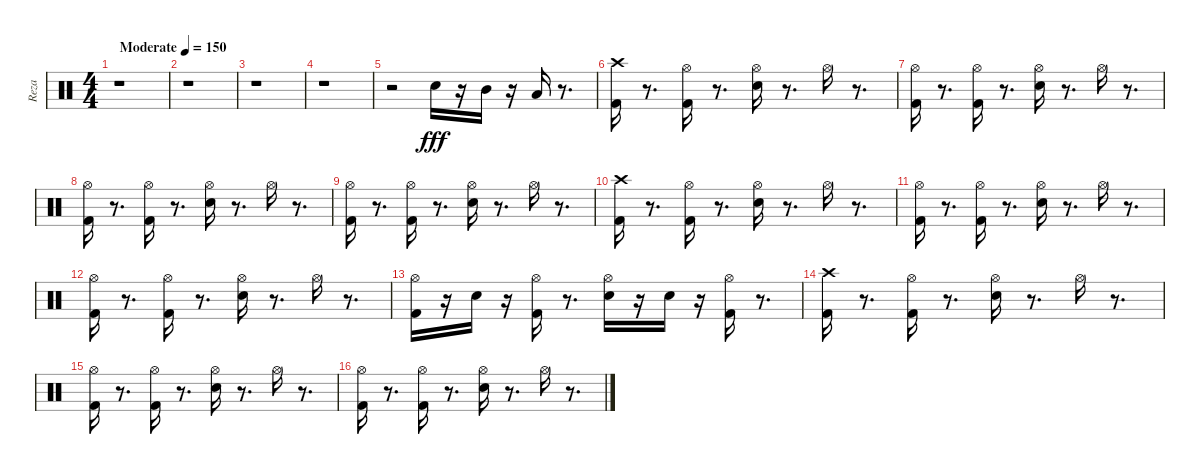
\track ("Reza" "Reza") {instrument percussion}
\staff {score}
\articulation defaults
\ts (4 4)
\tempo (150 "Moderate")
\clef neutral
\ks c
r.1{dy fff} |
r.1 |
r.1 |
r.1 |
r.2 "Snare (hit) 2".16 r.16 "Mid Tom (hit)".16 r.16 "Low Tom (hit)".16 r.8{d} |
("Kick (hit) 2" "Crash high (hit)").16 r.8{d} ("Kick (hit) 2" "Hi-Hat (open)").16 r.8{d} ("Snare (hit) 2" "Hi-Hat (open)").16 r.8{d} "Hi-Hat (open)".16 r.8{d} |
("Hi-Hat (open)" "Kick (hit) 2").16 r.8{d} ("Kick (hit) 2" "Hi-Hat (open)").16 r.8{d} ("Snare (hit) 2" "Hi-Hat (open)").16 r.8{d} "Hi-Hat (open)".16 r.8{d} |
("Hi-Hat (open)" "Kick (hit) 2").16 r.8{d} ("Hi-Hat (open)" "Kick (hit) 2").16 r.8{d} ("Snare (hit) 2" "Hi-Hat (open)").16 r.8{d} "Hi-Hat (open)".16 r.8{d} |
("Hi-Hat (open)" "Kick (hit) 2").16 r.8{d} ("Hi-Hat (open)" "Kick (hit) 2").16 r.8{d} ("Snare (hit) 2" "Hi-Hat (open)").16 r.8{d} "Hi-Hat (open)".16 r.8{d} |
("Crash high (hit)" "Kick (hit) 2").16 r.8{d} ("Hi-Hat (open)" "Kick (hit) 2").16 r.8{d} ("Snare (hit) 2" "Hi-Hat (open)").16 r.8{d} "Hi-Hat (open)".16 r.8{d} |
("Kick (hit) 2" "Hi-Hat (open)").16 r.8{d} ("Kick (hit) 2" "Hi-Hat (open)").16 r.8{d} ("Snare (hit) 2" "Hi-Hat (open)").16 r.8{d} "Hi-Hat (open)".16 r.8{d} |
("Hi-Hat (open)" "Kick (hit) 2").16 r.8{d} ("Hi-Hat (open)" "Kick (hit) 2").16 r.8{d} ("Snare (hit) 2" "Hi-Hat (open)").16 r.8{d} "Hi-Hat (open)".16 r.8{d} |
("Hi-Hat (open)" "Kick (hit) 2").16 r.16 "Snare (hit) 2".16 r.16 ("Hi-Hat (open)" "Kick (hit) 2").16 r.8{d} ("Hi-Hat (open)" "Snare (hit) 2").16 r.16 "Snare (hit) 2".16 r.16 ("Kick (hit) 2" "Hi-Hat (open)").16 r.8{d} |
("Crash high (hit)" "Kick (hit) 2").16 r.8{d} ("Hi-Hat (open)" "Kick (hit) 2").16 r.8{d} ("Snare (hit) 2" "Hi-Hat (open)").16 r.8{d} "Hi-Hat (open)".16 r.8{d} |
("Kick (hit) 2" "Hi-Hat (open)").16 r.8{d} ("Kick (hit) 2" "Hi-Hat (open)").16 r.8{d} ("Snare (hit) 2" "Hi-Hat (open)").16 r.8{d} "Hi-Hat (open)".16 r.8{d} |
("Hi-Hat (open)" "Kick (hit) 2").16 r.8{d} ("Hi-Hat (open)" "Kick (hit) 2").16 r.8{d} ("Hi-Hat (open)" "Snare (hit) 2").16 r.8{d} "Hi-Hat (open)".16 r.8{d}
